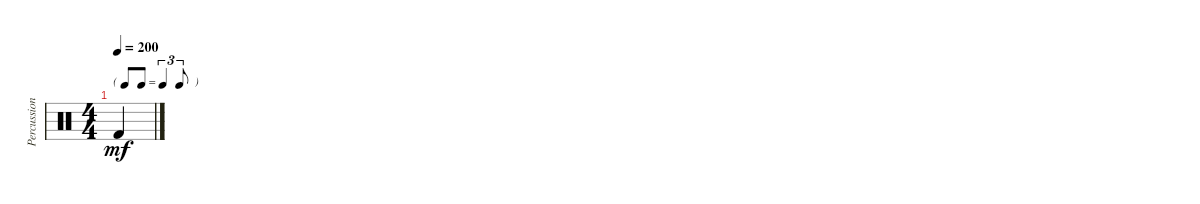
\track ("Percussions" "Percussion") {instrument percussion}
\staff {score}
\articulation defaults
\ts (4 4)
\tf triplet8th
\tempo 200
\clef neutral
\ks c "Kick (hit) 2".4{dy mf}
